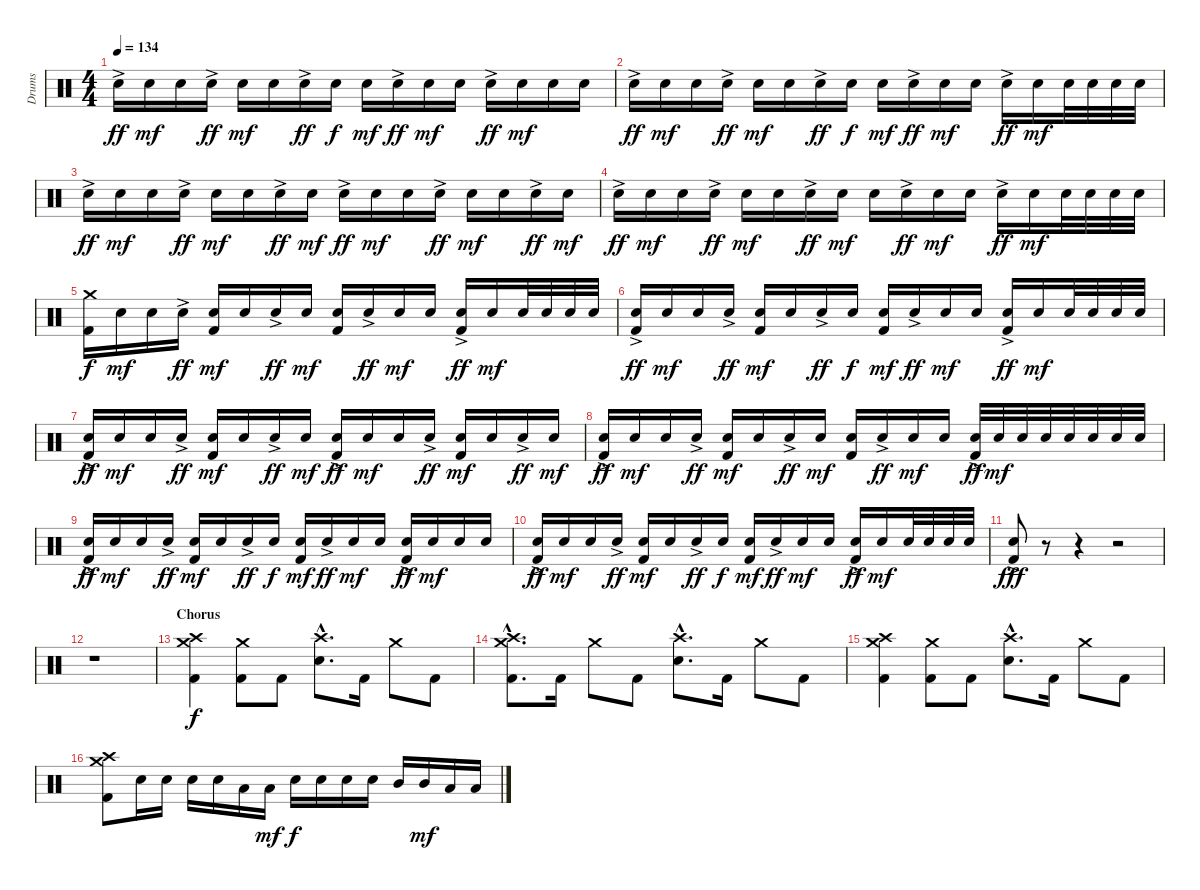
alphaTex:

\track ("Drums" "Drums") {instrument percussion}
\staff {score}
\articulation defaults
\ts (4 4)
\tempo 134
\clef neutral
\ks c "Electric Snare (hit)"{ac}.16{dy ff} "Electric Snare (hit)".16{dy mf} "Electric Snare (hit)".16 "Electric Snare (hit)"{ac}.16{dy ff} "Electric Snare (hit)".16{dy mf} "Electric Snare (hit)".16 "Electric Snare (hit)"{ac}.16{dy ff} "Electric Snare (hit)".16{dy f} "Electric Snare (hit)".16{dy mf} "Electric Snare (hit)"{ac}.16{dy ff} "Electric Snare (hit)".16{dy mf} "Electric Snare (hit)".16 "Electric Snare (hit)"{ac}.16{dy ff} "Electric Snare (hit)".16{dy mf} "Electric Snare (hit)".16 "Electric Snare (hit)".16
|
"Electric Snare (hit)"{ac}.16{dy ff} "Electric Snare (hit)".16{dy mf} "Electric Snare (hit)".16 "Electric Snare (hit)"{ac}.16{dy ff} "Electric Snare (hit)".16{dy mf} "Electric Snare (hit)".16 "Electric Snare (hit)"{ac}.16{dy ff} "Electric Snare (hit)".16{dy f} "Electric Snare (hit)".16{dy mf} "Electric Snare (hit)"{ac}.16{dy ff} "Electric Snare (hit)".16{dy mf} "Electric Snare (hit)".16 "Electric Snare (hit)"{ac}.16{dy ff} "Electric Snare (hit)".16{dy mf} "Electric Snare (hit)".32 "Electric Snare (hit)".32 "Electric Snare (hit)".32 "Electric Snare (hit)".32 |
"Electric Snare (hit)"{ac}.16{dy ff} "Electric Snare (hit)".16{dy mf} "Electric Snare (hit)".16 "Electric Snare (hit)"{ac}.16{dy ff} "Electric Snare (hit)".16{dy mf} "Electric Snare (hit)".16 "Electric Snare (hit)"{ac}.16{dy ff} "Electric Snare (hit)".16{dy mf} "Electric Snare (hit)"{ac}.16{dy ff} "Electric Snare (hit)".16{dy mf} "Electric Snare (hit)".16 "Electric Snare (hit)"{ac}.16{dy ff} "Electric Snare (hit)".16{dy mf} "Electric Snare (hit)".16 "Electric Snare (hit)"{ac}.16{dy ff} "Electric Snare (hit)".16{dy mf} |
"Electric Snare (hit)"{ac}.16{dy ff} "Electric Snare (hit)".16{dy mf} "Electric Snare (hit)".16 "Electric Snare (hit)"{ac}.16{dy ff} "Electric Snare (hit)".16{dy mf} "Electric Snare (hit)".16 "Electric Snare (hit)"{ac}.16{dy ff} "Electric Snare (hit)".16{dy mf} "Electric Snare (hit)".16 "Electric Snare (hit)"{ac}.16{dy ff} "Electric Snare (hit)".16{dy mf} "Electric Snare (hit)".16 "Electric Snare (hit)"{ac}.16{dy ff} "Electric Snare (hit)".16{dy mf} "Electric Snare (hit)".32 "Electric Snare (hit)".32 "Electric Snare (hit)".32 "Electric Snare (hit)".32 |
("Crash medium (hit)" "Kick (hit) 2").16{dy f} "Electric Snare (hit)".16{dy mf} "Electric Snare (hit)".16 "Electric Snare (hit)"{ac}.16{dy ff} ("Electric Snare (hit)" "Kick (hit) 2").16{dy mf} "Electric Snare (hit)".16 "Electric Snare (hit)"{ac}.16{dy ff} "Electric Snare (hit)".16{dy mf} ("Electric Snare (hit)" "Kick (hit) 2").16 "Electric Snare (hit)"{ac}.16{dy ff} "Electric Snare (hit)".16{dy mf} "Electric Snare (hit)".16 ("Electric Snare (hit)"{ac} "Kick (hit) 2").16{dy ff} "Electric Snare (hit)".16{dy mf} "Electric Snare (hit)".32 "Electric Snare (hit)".32 "Electric Snare (hit)".32 "Electric Snare (hit)".32 |
("Electric Snare (hit)"{ac} "Kick (hit) 2").16{dy ff} "Electric Snare (hit)".16{dy mf} "Electric Snare (hit)".16 "Electric Snare (hit)"{ac}.16{dy ff} ("Electric Snare (hit)" "Kick (hit) 2").16{dy mf} "Electric Snare (hit)".16 "Electric Snare (hit)"{ac}.16{dy ff} "Electric Snare (hit)".16{dy f} ("Electric Snare (hit)" "Kick (hit) 2").16{dy mf} "Electric Snare (hit)"{ac}.16{dy ff} "Electric Snare (hit)".16{dy mf} "Electric Snare (hit)".16 ("Electric Snare (hit)"{ac} "Kick (hit) 2").16{dy ff} "Electric Snare (hit)".16{dy mf} "Electric Snare (hit)".32 "Electric Snare (hit)".32 "Electric Snare (hit)".32 "Electric Snare (hit)".32 |
("Electric Snare (hit)"{ac} "Kick (hit) 2").16{dy ff} "Electric Snare (hit)".16{dy mf} "Electric Snare (hit)".16 "Electric Snare (hit)"{ac}.16{dy ff} ("Electric Snare (hit)" "Kick (hit) 2").16{dy mf} "Electric Snare (hit)".16 "Electric Snare (hit)"{ac}.16{dy ff} "Electric Snare (hit)".16{dy mf} ("Electric Snare (hit)"{ac} "Kick (hit) 2").16{dy ff} "Electric Snare (hit)".16{dy mf} "Electric Snare (hit)".16 "Electric Snare (hit)"{ac}.16{dy ff} ("Electric Snare (hit)" "Kick (hit) 2").16{dy mf} "Electric Snare (hit)".16 "Electric Snare (hit)"{ac}.16{dy ff} "Electric Snare (hit)".16{dy mf} |
("Electric Snare (hit)"{ac} "Kick (hit) 2").16{dy ff} "Electric Snare (hit)".16{dy mf} "Electric Snare (hit)".16 "Electric Snare (hit)"{ac}.16{dy ff} ("Electric Snare (hit)" "Kick (hit) 2").16{dy mf} "Electric Snare (hit)".16 "Electric Snare (hit)"{ac}.16{dy ff} "Electric Snare (hit)".16{dy mf} ("Electric Snare (hit)" "Kick (hit) 2").16 "Electric Snare (hit)"{ac}.16{dy ff} "Electric Snare (hit)".16{dy mf} "Electric Snare (hit)".16 ("Electric Snare (hit)"{ac} "Kick (hit) 2").32{dy ff} "Electric Snare (hit)".32{dy mf} "Electric Snare (hit)".32 "Electric Snare (hit)".32 "Electric Snare (hit)".32 "Electric Snare (hit)".32 "Electric Snare (hit)".32 "Electric Snare (hit)".32 |
("Electric Snare (hit)"{ac} "Kick (hit) 2").16{dy ff} "Electric Snare (hit)".16{dy mf} "Electric Snare (hit)".16 "Electric Snare (hit)"{ac}.16{dy ff} ("Electric Snare (hit)" "Kick (hit) 2").16{dy mf} "Electric Snare (hit)".16 "Electric Snare (hit)"{ac}.16{dy ff} "Electric Snare (hit)".16{dy f} ("Electric Snare (hit)" "Kick (hit) 2").16{dy mf} "Electric Snare (hit)"{ac}.16{dy ff} "Electric Snare (hit)".16{dy mf} "Electric Snare (hit)".16 ("Electric Snare (hit)"{ac} "Kick (hit) 2").16{dy ff} "Electric Snare (hit)".16{dy mf} "Electric Snare (hit)".16 "Electric Snare (hit)".16 |
("Electric Snare (hit)"{ac} "Kick (hit) 2").16{dy ff} "Electric Snare (hit)".16{dy mf} "Electric Snare (hit)".16 "Electric Snare (hit)"{ac}.16{dy ff} ("Electric Snare (hit)" "Kick (hit) 2").16{dy mf} "Electric Snare (hit)".16 "Electric Snare (hit)"{ac}.16{dy ff} "Electric Snare (hit)".16{dy f} ("Electric Snare (hit)" "Kick (hit) 2").16{dy mf} "Electric Snare (hit)"{ac}.16{dy ff} "Electric Snare (hit)".16{dy mf} "Electric Snare (hit)".16 ("Electric Snare (hit)"{ac} "Kick (hit) 2").16{dy ff} "Electric Snare (hit)".16{dy mf} "Electric Snare (hit)".32 "Electric Snare (hit)".32 "Electric Snare (hit)".32 "Electric Snare (hit)".32 |
("Electric Snare (hit)"{ac} "Kick (hit) 2").8{dy fff} r.8 r.4 r.2 |
r.1 |
\section ("" "Chorus")
("Crash high (hit)" "Crash medium (hit)" "Kick (hit) 2").4{dy f} ("Crash medium (hit)" "Kick (hit) 2").8 "Kick (hit) 2".8 ("Crash high (hit)"{hac} "Electric Snare (hit)"{hac}).8{d} "Kick (hit) 2".16 "Crash medium (hit)".8 "Kick (hit) 2".8 |
("Crash high (hit)"{hac} "Crash medium (hit)"{hac} "Kick (hit) 2"{hac}).8{d} "Kick (hit) 2".16 "Crash medium (hit)".8 "Kick (hit) 2".8 ("Crash high (hit)"{hac} "Electric Snare (hit)"{hac}).8{d} "Kick (hit) 2".16 "Crash medium (hit)".8 "Kick (hit) 2".8 |
("Crash high (hit)" "Crash medium (hit)" "Kick (hit) 2").4 ("Crash medium (hit)" "Kick (hit) 2").8 "Kick (hit) 2".8 ("Crash high (hit)"{hac} "Electric Snare (hit)"{hac}).8{d} "Kick (hit) 2".16 "Crash medium (hit)".8 "Kick (hit) 2".8 |
("Crash high (hit)" "Crash medium (hit)" "Kick (hit) 2").8 "Electric Snare (hit)".16 "Electric Snare (hit)".16 "Electric Snare (hit)".16 "Electric Snare (hit)".16 "Low Tom (hit)".16 "Low Tom (hit)".16{dy mf} "Electric Snare (hit)".16{dy f} "Electric Snare (hit)".16 "Electric Snare (hit)".16 "Electric Snare (hit)".16 "Mid Tom (hit)".16 "Mid Tom (hit)".16{dy mf} "Low Tom (hit)".16 "Low Tom (hit)".16
